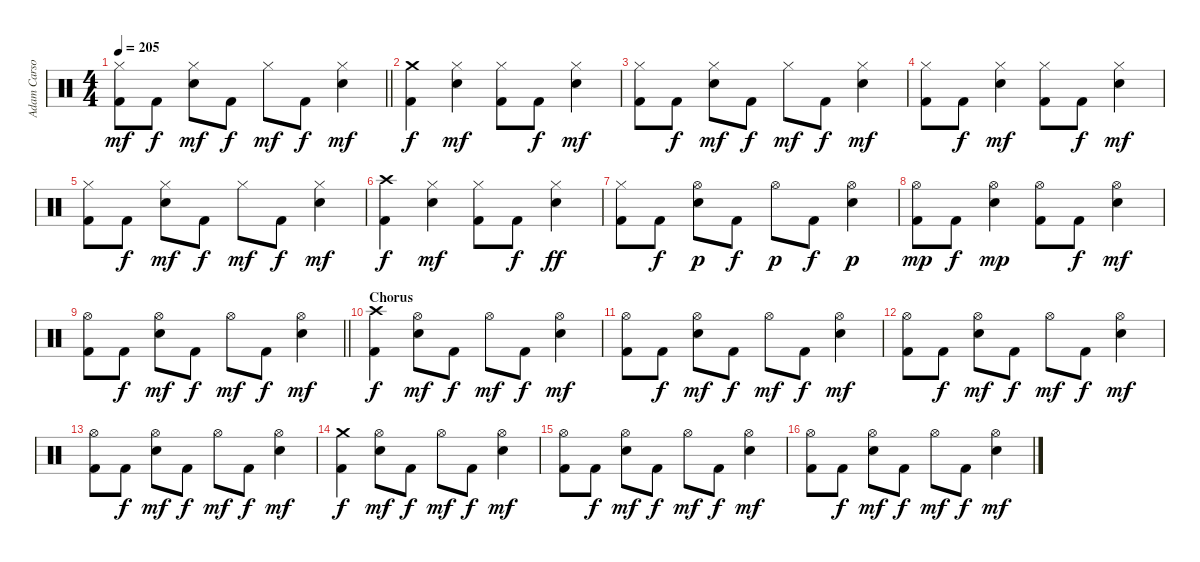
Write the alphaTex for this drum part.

\track ("Adam Carson" "Adam Carso") {instrument percussion}
\staff {score}
\articulation defaults
\ts (4 4)
\tempo 205
\clef neutral
\barLineRight lightlight
\ks aminor
("Hi-Hat (closed)" "Kick (hit) 2").8{dy mf} "Kick (hit) 2".8{dy f} ("Hi-Hat (closed)" "Snare (hit) 2").8{dy mf} "Kick (hit) 2".8{dy f} "Hi-Hat (closed)".8{dy mf} "Kick (hit) 2".8{dy f} ("Hi-Hat (closed)" "Snare (hit) 2").4{dy mf} |
("Crash medium (hit)" "Kick (hit) 2").4{dy f} ("Hi-Hat (closed)" "Snare (hit) 2").4{dy mf} ("Hi-Hat (closed)" "Kick (hit) 2").8 "Kick (hit) 2".8{dy f} ("Hi-Hat (closed)" "Snare (hit) 2").4{dy mf} |
("Hi-Hat (closed)" "Kick (hit) 2").8 "Kick (hit) 2".8{dy f} ("Hi-Hat (closed)" "Snare (hit) 2").8{dy mf} "Kick (hit) 2".8{dy f} "Hi-Hat (closed)".8{dy mf} "Kick (hit) 2".8{dy f} ("Hi-Hat (closed)" "Snare (hit) 2").4{dy mf} |
("Hi-Hat (closed)" "Kick (hit) 2").8 "Kick (hit) 2".8{dy f} ("Hi-Hat (closed)" "Snare (hit) 2").4{dy mf} ("Hi-Hat (closed)" "Kick (hit) 2").8 "Kick (hit) 2".8{dy f} ("Hi-Hat (closed)" "Snare (hit) 2").4{dy mf} |
("Hi-Hat (closed)" "Kick (hit) 2").8 "Kick (hit) 2".8{dy f} ("Hi-Hat (closed)" "Snare (hit) 2").8{dy mf} "Kick (hit) 2".8{dy f} "Hi-Hat (closed)".8{dy mf} "Kick (hit) 2".8{dy f} ("Hi-Hat (closed)" "Snare (hit) 2").4{dy mf} |
("Crash high (hit)" "Kick (hit) 2").4{dy f} ("Hi-Hat (closed)" "Snare (hit) 2").4{dy mf} ("Hi-Hat (closed)" "Kick (hit) 2").8 "Kick (hit) 2".8{dy f} ("Hi-Hat (closed)" "Snare (hit) 2").4{dy ff} |
("Hi-Hat (closed)" "Kick (hit) 2").8 "Kick (hit) 2".8{dy f} ("Hi-Hat (open)" "Snare (hit) 2").8{dy p} "Kick (hit) 2".8{dy f} "Hi-Hat (open)".8{dy p} "Kick (hit) 2".8{dy f} ("Hi-Hat (open)" "Snare (hit) 2").4{dy p} |
("Hi-Hat (open)" "Kick (hit) 2").8{dy mp} "Kick (hit) 2".8{dy f} ("Hi-Hat (open)" "Snare (hit) 2").4{dy mp} ("Hi-Hat (open)" "Kick (hit) 2").8 "Kick (hit) 2".8{dy f} ("Hi-Hat (open)" "Snare (hit) 2").4{dy mf} |
\barLineRight lightlight
("Hi-Hat (open)" "Kick (hit) 2").8 "Kick (hit) 2".8{dy f} ("Hi-Hat (open)" "Snare (hit) 2").8{dy mf} "Kick (hit) 2".8{dy f} "Hi-Hat (open)".8{dy mf} "Kick (hit) 2".8{dy f} ("Hi-Hat (open)" "Snare (hit) 2").4{dy mf} |
\section ("" "Chorus")
("Crash high (hit)" "Kick (hit) 2").4{dy f} ("Hi-Hat (open)" "Snare (hit) 2").8{dy mf} "Kick (hit) 2".8{dy f} "Hi-Hat (open)".8{dy mf} "Kick (hit) 2".8{dy f} ("Hi-Hat (open)" "Snare (hit) 2").4{dy mf} |
("Hi-Hat (open)" "Kick (hit) 2").8 "Kick (hit) 2".8{dy f} ("Hi-Hat (open)" "Snare (hit) 2").8{dy mf} "Kick (hit) 2".8{dy f} "Hi-Hat (open)".8{dy mf} "Kick (hit) 2".8{dy f} ("Hi-Hat (open)" "Snare (hit) 2").4{dy mf} |
("Hi-Hat (open)" "Kick (hit) 2").8 "Kick (hit) 2".8{dy f} ("Hi-Hat (open)" "Snare (hit) 2").8{dy mf} "Kick (hit) 2".8{dy f} "Hi-Hat (open)".8{dy mf} "Kick (hit) 2".8{dy f} ("Hi-Hat (open)" "Snare (hit) 2").4{dy mf} |
("Hi-Hat (open)" "Kick (hit) 2").8 "Kick (hit) 2".8{dy f} ("Hi-Hat (open)" "Snare (hit) 2").8{dy mf} "Kick (hit) 2".8{dy f} "Hi-Hat (open)".8{dy mf} "Kick (hit) 2".8{dy f} ("Hi-Hat (open)" "Snare (hit) 2").4{dy mf} |
("Crash medium (hit)" "Kick (hit) 2").4{dy f} ("Hi-Hat (open)" "Snare (hit) 2").8{dy mf} "Kick (hit) 2".8{dy f} "Hi-Hat (open)".8{dy mf} "Kick (hit) 2".8{dy f} ("Hi-Hat (open)" "Snare (hit) 2").4{dy mf} |
("Hi-Hat (open)" "Kick (hit) 2").8 "Kick (hit) 2".8{dy f} ("Hi-Hat (open)" "Snare (hit) 2").8{dy mf} "Kick (hit) 2".8{dy f} "Hi-Hat (open)".8{dy mf} "Kick (hit) 2".8{dy f} ("Hi-Hat (open)" "Snare (hit) 2").4{dy mf} |
("Hi-Hat (open)" "Kick (hit) 2").8 "Kick (hit) 2".8{dy f} ("Hi-Hat (open)" "Snare (hit) 2").8{dy mf} "Kick (hit) 2".8{dy f} "Hi-Hat (open)".8{dy mf} "Kick (hit) 2".8{dy f} ("Hi-Hat (open)" "Snare (hit) 2").4{dy mf}
